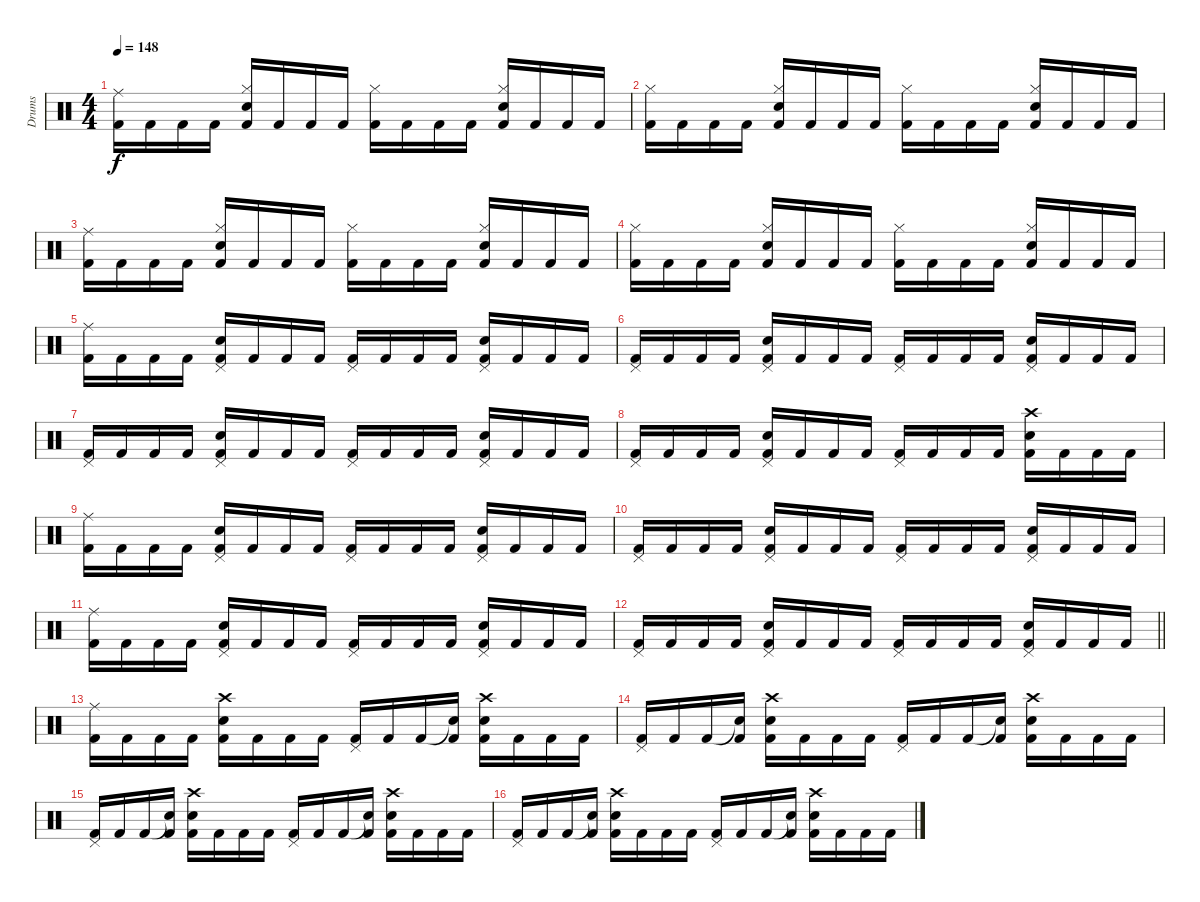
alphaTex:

\track ("Drums" "Drums") {instrument percussion}
\staff {score}
\articulation defaults
\ts (4 4)
\tempo 148
\clef neutral
\ks c
("Ride (middle)" "Kick (hit) 2").16{dy f} "Kick (hit) 2".16 "Kick (hit) 2".16 "Kick (hit) 2".16 ("Hi-Hat (closed)" "Electric Snare (hit)" "Kick (hit) 2").16 "Kick (hit) 2".16 "Kick (hit) 2".16 "Kick (hit) 2".16 ("Hi-Hat (closed)" "Kick (hit) 2").16 "Kick (hit) 2".16 "Kick (hit) 2".16 "Kick (hit) 2".16 ("Hi-Hat (closed)" "Electric Snare (hit)" "Kick (hit) 2").16 "Kick (hit) 2".16 "Kick (hit) 2".16 "Kick (hit) 2".16 |
("Hi-Hat (closed)" "Kick (hit) 2").16 "Kick (hit) 2".16 "Kick (hit) 2".16 "Kick (hit) 2".16 ("Hi-Hat (closed)" "Electric Snare (hit)" "Kick (hit) 2").16 "Kick (hit) 2".16 "Kick (hit) 2".16 "Kick (hit) 2".16 ("Hi-Hat (closed)" "Kick (hit) 2").16 "Kick (hit) 2".16 "Kick (hit) 2".16 "Kick (hit) 2".16 ("Hi-Hat (closed)" "Electric Snare (hit)" "Kick (hit) 2").16 "Kick (hit) 2".16 "Kick (hit) 2".16 "Kick (hit) 2".16 |
("Ride (middle)" "Kick (hit) 2").16 "Kick (hit) 2".16 "Kick (hit) 2".16 "Kick (hit) 2".16 ("Hi-Hat (closed)" "Electric Snare (hit)" "Kick (hit) 2").16 "Kick (hit) 2".16 "Kick (hit) 2".16 "Kick (hit) 2".16 ("Hi-Hat (closed)" "Kick (hit) 2").16 "Kick (hit) 2".16 "Kick (hit) 2".16 "Kick (hit) 2".16 ("Hi-Hat (closed)" "Electric Snare (hit)" "Kick (hit) 2").16 "Kick (hit) 2".16 "Kick (hit) 2".16 "Kick (hit) 2".16 |
("Hi-Hat (closed)" "Kick (hit) 2").16 "Kick (hit) 2".16 "Kick (hit) 2".16 "Kick (hit) 2".16 ("Hi-Hat (closed)" "Electric Snare (hit)" "Kick (hit) 2").16 "Kick (hit) 2".16 "Kick (hit) 2".16 "Kick (hit) 2".16 ("Hi-Hat (closed)" "Kick (hit) 2").16 "Kick (hit) 2".16 "Kick (hit) 2".16 "Kick (hit) 2".16 ("Hi-Hat (closed)" "Electric Snare (hit)" "Kick (hit) 2").16 "Kick (hit) 2".16 "Kick (hit) 2".16 "Kick (hit) 2".16 |
("Ride (middle)" "Kick (hit) 2").16 "Kick (hit) 2".16 "Kick (hit) 2".16 "Kick (hit) 2".16 ("Pedal Hi-Hat (hit)" "Electric Snare (hit)" "Kick (hit) 2").16 "Kick (hit) 2".16 "Kick (hit) 2".16 "Kick (hit) 2".16 ("Pedal Hi-Hat (hit)" "Kick (hit) 2").16 "Kick (hit) 2".16 "Kick (hit) 2".16 "Kick (hit) 2".16 ("Pedal Hi-Hat (hit)" "Electric Snare (hit)" "Kick (hit) 2").16 "Kick (hit) 2".16 "Kick (hit) 2".16 "Kick (hit) 2".16 |
("Pedal Hi-Hat (hit)" "Kick (hit) 2").16 "Kick (hit) 2".16 "Kick (hit) 2".16 "Kick (hit) 2".16 ("Pedal Hi-Hat (hit)" "Electric Snare (hit)" "Kick (hit) 2").16 "Kick (hit) 2".16 "Kick (hit) 2".16 "Kick (hit) 2".16 ("Pedal Hi-Hat (hit)" "Kick (hit) 2").16 "Kick (hit) 2".16 "Kick (hit) 2".16 "Kick (hit) 2".16 ("Pedal Hi-Hat (hit)" "Electric Snare (hit)" "Kick (hit) 2").16 "Kick (hit) 2".16 "Kick (hit) 2".16 "Kick (hit) 2".16 |
("Pedal Hi-Hat (hit)" "Kick (hit) 2").16 "Kick (hit) 2".16 "Kick (hit) 2".16 "Kick (hit) 2".16 ("Pedal Hi-Hat (hit)" "Electric Snare (hit)" "Kick (hit) 2").16 "Kick (hit) 2".16 "Kick (hit) 2".16 "Kick (hit) 2".16 ("Pedal Hi-Hat (hit)" "Kick (hit) 2").16 "Kick (hit) 2".16 "Kick (hit) 2".16 "Kick (hit) 2".16 ("Pedal Hi-Hat (hit)" "Electric Snare (hit)" "Kick (hit) 2").16 "Kick (hit) 2".16 "Kick (hit) 2".16 "Kick (hit) 2".16 |
("Pedal Hi-Hat (hit)" "Kick (hit) 2").16 "Kick (hit) 2".16 "Kick (hit) 2".16 "Kick (hit) 2".16 ("Pedal Hi-Hat (hit)" "Electric Snare (hit)" "Kick (hit) 2").16 "Kick (hit) 2".16 "Kick (hit) 2".16 "Kick (hit) 2".16 ("Pedal Hi-Hat (hit)" "Kick (hit) 2").16 "Kick (hit) 2".16 "Kick (hit) 2".16 "Kick (hit) 2".16 ("Crash high (hit)" "Electric Snare (hit)" "Kick (hit) 2").16 "Kick (hit) 2".16 "Kick (hit) 2".16 "Kick (hit) 2".16 |
("Ride (middle)" "Kick (hit) 2").16 "Kick (hit) 2".16 "Kick (hit) 2".16 "Kick (hit) 2".16 ("Pedal Hi-Hat (hit)" "Electric Snare (hit)" "Kick (hit) 2").16 "Kick (hit) 2".16 "Kick (hit) 2".16 "Kick (hit) 2".16 ("Pedal Hi-Hat (hit)" "Kick (hit) 2").16 "Kick (hit) 2".16 "Kick (hit) 2".16 "Kick (hit) 2".16 ("Pedal Hi-Hat (hit)" "Electric Snare (hit)" "Kick (hit) 2").16 "Kick (hit) 2".16 "Kick (hit) 2".16 "Kick (hit) 2".16 |
("Pedal Hi-Hat (hit)" "Kick (hit) 2").16 "Kick (hit) 2".16 "Kick (hit) 2".16 "Kick (hit) 2".16 ("Pedal Hi-Hat (hit)" "Electric Snare (hit)" "Kick (hit) 2").16 "Kick (hit) 2".16 "Kick (hit) 2".16 "Kick (hit) 2".16 ("Pedal Hi-Hat (hit)" "Kick (hit) 2").16 "Kick (hit) 2".16 "Kick (hit) 2".16 "Kick (hit) 2".16 ("Pedal Hi-Hat (hit)" "Electric Snare (hit)" "Kick (hit) 2").16 "Kick (hit) 2".16 "Kick (hit) 2".16 "Kick (hit) 2".16 |
("Ride (middle)" "Kick (hit) 2").16 "Kick (hit) 2".16 "Kick (hit) 2".16 "Kick (hit) 2".16 ("Pedal Hi-Hat (hit)" "Electric Snare (hit)" "Kick (hit) 2").16 "Kick (hit) 2".16 "Kick (hit) 2".16 "Kick (hit) 2".16 ("Pedal Hi-Hat (hit)" "Kick (hit) 2").16 "Kick (hit) 2".16 "Kick (hit) 2".16 "Kick (hit) 2".16 ("Pedal Hi-Hat (hit)" "Electric Snare (hit)" "Kick (hit) 2").16 "Kick (hit) 2".16 "Kick (hit) 2".16 "Kick (hit) 2".16 |
\barLineRight lightlight
("Pedal Hi-Hat (hit)" "Kick (hit) 2").16 "Kick (hit) 2".16 "Kick (hit) 2".16 "Kick (hit) 2".16 ("Pedal Hi-Hat (hit)" "Electric Snare (hit)" "Kick (hit) 2").16 "Kick (hit) 2".16 "Kick (hit) 2".16 "Kick (hit) 2".16 ("Pedal Hi-Hat (hit)" "Kick (hit) 2").16 "Kick (hit) 2".16 "Kick (hit) 2".16 "Kick (hit) 2".16 ("Pedal Hi-Hat (hit)" "Electric Snare (hit)" "Kick (hit) 2").16 "Kick (hit) 2".16 "Kick (hit) 2".16 "Kick (hit) 2".16 |
("Ride (middle)" "Kick (hit) 2").16 "Kick (hit) 2".16 "Kick (hit) 2".16 "Kick (hit) 2".16 ("Crash high (hit)" "Electric Snare (hit)" "Kick (hit) 2").16 "Kick (hit) 2".16 "Kick (hit) 2".16 "Kick (hit) 2".16 ("Pedal Hi-Hat (hit)" "Kick (hit) 2").16 "Kick (hit) 2".16 "Kick (hit) 2".16 ("Snare (hit)"{t} "Kick (hit) 2").16 ("Crash high (hit)" "Electric Snare (hit)" "Kick (hit) 2").16 "Kick (hit) 2".16 "Kick (hit) 2".16 "Kick (hit) 2".16 |
("Pedal Hi-Hat (hit)" "Kick (hit) 2").16 "Kick (hit) 2".16 "Kick (hit) 2".16 ("Snare (hit)"{t} "Kick (hit) 2").16 ("Crash high (hit)" "Electric Snare (hit)" "Kick (hit) 2").16 "Kick (hit) 2".16 "Kick (hit) 2".16 "Kick (hit) 2".16 ("Pedal Hi-Hat (hit)" "Kick (hit) 2").16 "Kick (hit) 2".16 "Kick (hit) 2".16 ("Snare (hit)"{t} "Kick (hit) 2").16 ("Crash high (hit)" "Electric Snare (hit)" "Kick (hit) 2").16 "Kick (hit) 2".16 "Kick (hit) 2".16 "Kick (hit) 2".16 |
("Pedal Hi-Hat (hit)" "Kick (hit) 2").16 "Kick (hit) 2".16 "Kick (hit) 2".16 ("Snare (hit)"{t} "Kick (hit) 2").16 ("Crash high (hit)" "Electric Snare (hit)" "Kick (hit) 2").16 "Kick (hit) 2".16 "Kick (hit) 2".16 "Kick (hit) 2".16 ("Pedal Hi-Hat (hit)" "Kick (hit) 2").16 "Kick (hit) 2".16 "Kick (hit) 2".16 ("Snare (hit)"{t} "Kick (hit) 2").16 ("Crash high (hit)" "Electric Snare (hit)" "Kick (hit) 2").16 "Kick (hit) 2".16 "Kick (hit) 2".16 "Kick (hit) 2".16 |
("Pedal Hi-Hat (hit)" "Kick (hit) 2").16 "Kick (hit) 2".16 "Kick (hit) 2".16 ("Snare (hit)"{t} "Kick (hit) 2").16 ("Crash high (hit)" "Electric Snare (hit)" "Kick (hit) 2").16 "Kick (hit) 2".16 "Kick (hit) 2".16 "Kick (hit) 2".16 ("Pedal Hi-Hat (hit)" "Kick (hit) 2").16 "Kick (hit) 2".16 "Kick (hit) 2".16 ("Snare (hit)"{t} "Kick (hit) 2").16 ("Crash high (hit)" "Electric Snare (hit)" "Kick (hit) 2").16 "Kick (hit) 2".16 "Kick (hit) 2".16 "Kick (hit) 2".16
